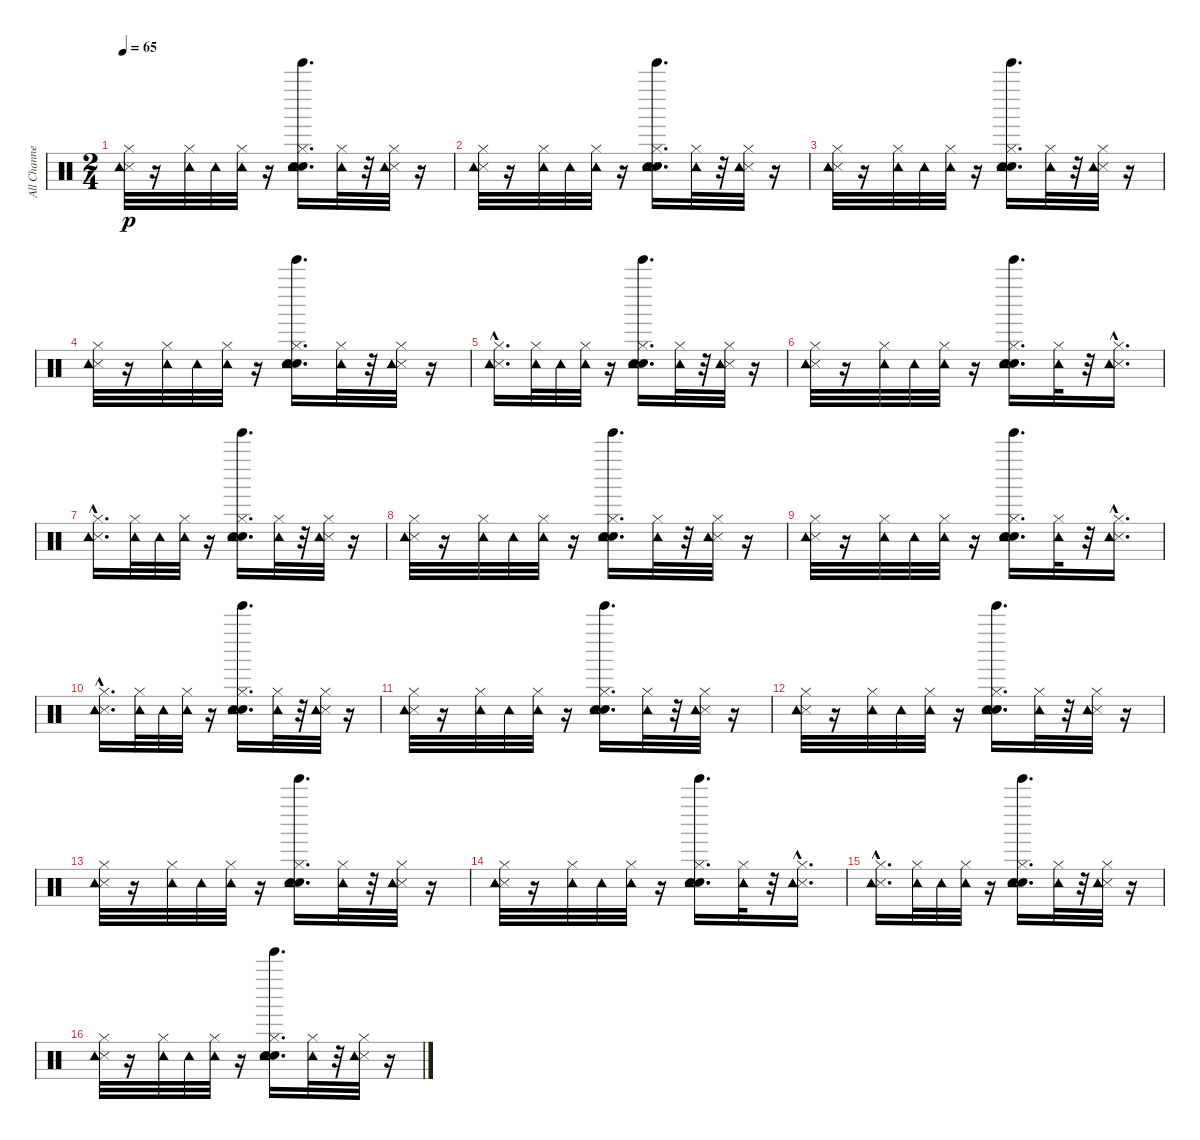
\track ("All Channels*merged" "All Channe") {instrument percussion}
\staff {score}
\articulation defaults
\ts (2 4)
\tempo 65
\clef neutral
\ks c
("Metronome (hit)" "Hi-Hat (closed)" "Tambourine (hit)").32{dy p} r.16 ("Hi-Hat (closed)" "Tambourine (hit)").32 "Tambourine (hit)".32 ("Hi-Hat (closed)" "Tambourine (hit)").32 r.16 ("Metronome (bell)" "Electric Snare (hit)" "Hi-Hat (closed)" "Tambourine (hit)" "Tinkle Bell (hit)").16{d} ("Hi-Hat (closed)" "Tambourine (hit)").32 r.32 ("Metronome (hit)" "Hi-Hat (closed)" "Tambourine (hit)").32 r.16 |
("Metronome (hit)" "Hi-Hat (closed)" "Tambourine (hit)").32 r.16 ("Hi-Hat (closed)" "Tambourine (hit)").32 "Tambourine (hit)".32 ("Hi-Hat (closed)" "Tambourine (hit)").32 r.16 ("Metronome (bell)" "Electric Snare (hit)" "Hi-Hat (closed)" "Tambourine (hit)" "Tinkle Bell (hit)").16{d} ("Hi-Hat (closed)" "Tambourine (hit)").32 r.32 ("Metronome (hit)" "Hi-Hat (closed)" "Tambourine (hit)").32 r.16 |
("Metronome (hit)" "Hi-Hat (closed)" "Tambourine (hit)").32 r.16 ("Hi-Hat (closed)" "Tambourine (hit)").32 "Tambourine (hit)".32 ("Hi-Hat (closed)" "Tambourine (hit)").32 r.16 ("Metronome (bell)" "Electric Snare (hit)" "Hi-Hat (closed)" "Tambourine (hit)" "Tinkle Bell (hit)").16{d} ("Hi-Hat (closed)" "Tambourine (hit)").32 r.32 ("Metronome (hit)" "Hi-Hat (closed)" "Tambourine (hit)").32 r.16 |
("Metronome (hit)" "Hi-Hat (closed)" "Tambourine (hit)").32 r.16 ("Hi-Hat (closed)" "Tambourine (hit)").32 "Tambourine (hit)".32 ("Hi-Hat (closed)" "Tambourine (hit)").32 r.16 ("Metronome (bell)" "Electric Snare (hit)" "Hi-Hat (closed)" "Tambourine (hit)" "Tinkle Bell (hit)").16{d} ("Hi-Hat (closed)" "Tambourine (hit)").32 r.32 ("Metronome (hit)" "Hi-Hat (closed)" "Tambourine (hit)").32 r.16 |
("Metronome (hit)" "Hi-Hat (closed)"{hac} "Tambourine (hit)").16{d} ("Hi-Hat (closed)" "Tambourine (hit)").32 "Tambourine (hit)".32 ("Hi-Hat (closed)" "Tambourine (hit)").32 r.16 ("Metronome (bell)" "Electric Snare (hit)" "Hi-Hat (closed)" "Tambourine (hit)" "Tinkle Bell (hit)").16{d} ("Hi-Hat (closed)" "Tambourine (hit)").32 r.32 ("Metronome (hit)" "Hi-Hat (closed)" "Tambourine (hit)").32 r.16 |
("Metronome (hit)" "Hi-Hat (closed)" "Tambourine (hit)").32 r.16 ("Hi-Hat (closed)" "Tambourine (hit)").32 "Tambourine (hit)".32 ("Hi-Hat (closed)" "Tambourine (hit)").32 r.16 ("Metronome (bell)" "Electric Snare (hit)" "Hi-Hat (closed)" "Tambourine (hit)" "Tinkle Bell (hit)").16{d} ("Hi-Hat (closed)" "Tambourine (hit)").32 r.32 ("Metronome (hit)"{hac} "Hi-Hat (closed)" "Tambourine (hit)").16{d} |
("Metronome (hit)"{hac} "Hi-Hat (closed)" "Tambourine (hit)").16{d} ("Hi-Hat (closed)" "Tambourine (hit)").32 "Tambourine (hit)".32 ("Hi-Hat (closed)" "Tambourine (hit)").32 r.16 ("Metronome (bell)" "Electric Snare (hit)" "Hi-Hat (closed)" "Tambourine (hit)" "Tinkle Bell (hit)").16{d} ("Hi-Hat (closed)" "Tambourine (hit)").32 r.32 ("Metronome (hit)" "Hi-Hat (closed)" "Tambourine (hit)").32 r.16 |
("Metronome (hit)" "Hi-Hat (closed)" "Tambourine (hit)").32 r.16 ("Hi-Hat (closed)" "Tambourine (hit)").32 "Tambourine (hit)".32 ("Hi-Hat (closed)" "Tambourine (hit)").32 r.16 ("Metronome (bell)" "Electric Snare (hit)" "Hi-Hat (closed)" "Tambourine (hit)" "Tinkle Bell (hit)").16{d} ("Hi-Hat (closed)" "Tambourine (hit)").32 r.32 ("Metronome (hit)" "Hi-Hat (closed)" "Tambourine (hit)").32 r.16 |
("Metronome (hit)" "Hi-Hat (closed)" "Tambourine (hit)").32 r.16 ("Hi-Hat (closed)" "Tambourine (hit)").32 "Tambourine (hit)".32 ("Hi-Hat (closed)" "Tambourine (hit)").32 r.16 ("Metronome (bell)" "Electric Snare (hit)" "Hi-Hat (closed)" "Tambourine (hit)" "Tinkle Bell (hit)").16{d} ("Hi-Hat (closed)" "Tambourine (hit)").32 r.32 ("Metronome (hit)" "Hi-Hat (closed)"{hac} "Tambourine (hit)").16{d} |
("Metronome (hit)" "Hi-Hat (closed)"{hac} "Tambourine (hit)").16{d} ("Hi-Hat (closed)" "Tambourine (hit)").32 "Tambourine (hit)".32 ("Hi-Hat (closed)" "Tambourine (hit)").32 r.16 ("Metronome (bell)" "Electric Snare (hit)" "Hi-Hat (closed)" "Tambourine (hit)" "Tinkle Bell (hit)").16{d} ("Hi-Hat (closed)" "Tambourine (hit)").32 r.32 ("Metronome (hit)" "Hi-Hat (closed)" "Tambourine (hit)").32 r.16 |
("Metronome (hit)" "Hi-Hat (closed)" "Tambourine (hit)").32 r.16 ("Hi-Hat (closed)" "Tambourine (hit)").32 "Tambourine (hit)".32 ("Hi-Hat (closed)" "Tambourine (hit)").32 r.16 ("Metronome (bell)" "Electric Snare (hit)" "Hi-Hat (closed)" "Tambourine (hit)" "Tinkle Bell (hit)").16{d} ("Hi-Hat (closed)" "Tambourine (hit)").32 r.32 ("Metronome (hit)" "Hi-Hat (closed)" "Tambourine (hit)").32 r.16 |
("Metronome (hit)" "Hi-Hat (closed)" "Tambourine (hit)").32 r.16 ("Hi-Hat (closed)" "Tambourine (hit)").32 "Tambourine (hit)".32 ("Hi-Hat (closed)" "Tambourine (hit)").32 r.16 ("Metronome (bell)" "Electric Snare (hit)" "Hi-Hat (closed)" "Tambourine (hit)" "Tinkle Bell (hit)").16{d} ("Hi-Hat (closed)" "Tambourine (hit)").32 r.32 ("Metronome (hit)" "Hi-Hat (closed)" "Tambourine (hit)").32 r.16 |
("Metronome (hit)" "Hi-Hat (closed)" "Tambourine (hit)").32 r.16 ("Hi-Hat (closed)" "Tambourine (hit)").32 "Tambourine (hit)".32 ("Hi-Hat (closed)" "Tambourine (hit)").32 r.16 ("Metronome (bell)" "Electric Snare (hit)" "Hi-Hat (closed)" "Tambourine (hit)" "Tinkle Bell (hit)").16{d} ("Hi-Hat (closed)" "Tambourine (hit)").32 r.32 ("Metronome (hit)" "Hi-Hat (closed)" "Tambourine (hit)").32 r.16 |
("Metronome (hit)" "Hi-Hat (closed)" "Tambourine (hit)").32 r.16 ("Hi-Hat (closed)" "Tambourine (hit)").32 "Tambourine (hit)".32 ("Hi-Hat (closed)" "Tambourine (hit)").32 r.16 ("Metronome (bell)" "Electric Snare (hit)" "Hi-Hat (closed)" "Tambourine (hit)" "Tinkle Bell (hit)").16{d} ("Hi-Hat (closed)" "Tambourine (hit)").32 r.32 ("Metronome (hit)"{hac} "Hi-Hat (closed)" "Tambourine (hit)").16{d} |
("Metronome (hit)"{hac} "Hi-Hat (closed)" "Tambourine (hit)").16{d} ("Hi-Hat (closed)" "Tambourine (hit)").32 "Tambourine (hit)".32 ("Hi-Hat (closed)" "Tambourine (hit)").32 r.16 ("Metronome (bell)" "Electric Snare (hit)" "Hi-Hat (closed)" "Tambourine (hit)" "Tinkle Bell (hit)").16{d} ("Hi-Hat (closed)" "Tambourine (hit)").32 r.32 ("Metronome (hit)" "Hi-Hat (closed)" "Tambourine (hit)").32 r.16 |
("Metronome (hit)" "Hi-Hat (closed)" "Tambourine (hit)").32 r.16 ("Hi-Hat (closed)" "Tambourine (hit)").32 "Tambourine (hit)".32 ("Hi-Hat (closed)" "Tambourine (hit)").32 r.16 ("Metronome (bell)" "Electric Snare (hit)" "Hi-Hat (closed)" "Tambourine (hit)" "Tinkle Bell (hit)").16{d} ("Hi-Hat (closed)" "Tambourine (hit)").32 r.32 ("Metronome (hit)" "Hi-Hat (closed)" "Tambourine (hit)").32 r.16
